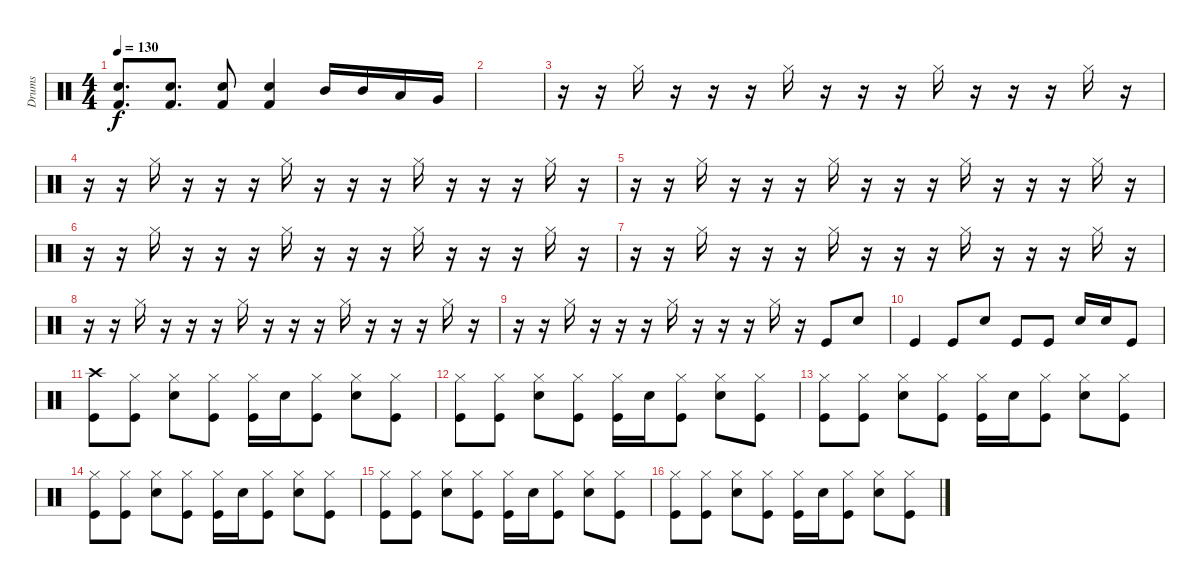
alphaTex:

\track ("Drums" "Drums") {instrument percussion}
\staff {score}
\articulation defaults
\ts (4 4)
\tempo 130
\clef neutral
\ks c
("Kick (hit) 2" "Snare (hit) 2").8{d dy f} ("Kick (hit) 2" "Snare (hit) 2").8{d} ("Kick (hit) 2" "Snare (hit) 2").8 ("Kick (hit) 2" "Snare (hit) 2").4 "Mid Tom (hit)".16 "Mid Tom (hit)".16 "Low Tom (hit)".16 "Very Low Tom (hit)".16 |
|
r.16 r.16 "Hi-Hat (closed)".16 r.16 r.16 r.16 "Hi-Hat (closed)".16 r.16 r.16 r.16 "Hi-Hat (closed)".16 r.16 r.16 r.16 "Hi-Hat (closed)".16 r.16 |
r.16 r.16 "Hi-Hat (closed)".16 r.16 r.16 r.16 "Hi-Hat (closed)".16 r.16 r.16 r.16 "Hi-Hat (closed)".16 r.16 r.16 r.16 "Hi-Hat (closed)".16 r.16 |
r.16 r.16 "Hi-Hat (closed)".16 r.16 r.16 r.16 "Hi-Hat (closed)".16 r.16 r.16 r.16 "Hi-Hat (closed)".16 r.16 r.16 r.16 "Hi-Hat (closed)".16 r.16 |
r.16 r.16 "Hi-Hat (closed)".16 r.16 r.16 r.16 "Hi-Hat (closed)".16 r.16 r.16 r.16 "Hi-Hat (closed)".16 r.16 r.16 r.16 "Hi-Hat (closed)".16 r.16 |
r.16 r.16 "Hi-Hat (closed)".16 r.16 r.16 r.16 "Hi-Hat (closed)".16 r.16 r.16 r.16 "Hi-Hat (closed)".16 r.16 r.16 r.16 "Hi-Hat (closed)".16 r.16 |
r.16 r.16 "Hi-Hat (closed)".16 r.16 r.16 r.16 "Hi-Hat (closed)".16 r.16 r.16 r.16 "Hi-Hat (closed)".16 r.16 r.16 r.16 "Hi-Hat (closed)".16 r.16 |
r.16 r.16 "Hi-Hat (closed)".16 r.16 r.16 r.16 "Hi-Hat (closed)".16 r.16 r.16 r.16 "Hi-Hat (closed)".16 r.16 "Kick (hit)".8 "Snare (hit) 2".8 |
"Kick (hit)".4 "Kick (hit)".8 "Snare (hit) 2".8 "Kick (hit)".8 "Kick (hit)".8 "Snare (hit) 2".16 "Snare (hit) 2".16 "Kick (hit)".8 |
("Crash high (hit)" "Kick (hit)").8 ("Hi-Hat (closed)" "Kick (hit)").8 ("Hi-Hat (closed)" "Snare (hit) 2").8 ("Hi-Hat (closed)" "Kick (hit)").8 ("Hi-Hat (closed)" "Kick (hit)").16 "Snare (hit) 2".16 ("Hi-Hat (closed)" "Kick (hit)").8 ("Hi-Hat (closed)" "Snare (hit) 2").8 ("Hi-Hat (closed)" "Kick (hit)").8 |
("Hi-Hat (closed)" "Kick (hit)").8 ("Hi-Hat (closed)" "Kick (hit)").8 ("Hi-Hat (closed)" "Snare (hit) 2").8 ("Hi-Hat (closed)" "Kick (hit)").8 ("Hi-Hat (closed)" "Kick (hit)").16 "Snare (hit) 2".16 ("Hi-Hat (closed)" "Kick (hit)").8 ("Hi-Hat (closed)" "Snare (hit) 2").8 ("Hi-Hat (closed)" "Kick (hit)").8 |
("Hi-Hat (closed)" "Kick (hit)").8 ("Hi-Hat (closed)" "Kick (hit)").8 ("Hi-Hat (closed)" "Snare (hit) 2").8 ("Hi-Hat (closed)" "Kick (hit)").8 ("Hi-Hat (closed)" "Kick (hit)").16 "Snare (hit) 2".16 ("Hi-Hat (closed)" "Kick (hit)").8 ("Hi-Hat (closed)" "Snare (hit) 2").8 ("Hi-Hat (closed)" "Kick (hit)").8 |
("Hi-Hat (closed)" "Kick (hit)").8 ("Hi-Hat (closed)" "Kick (hit)").8 ("Hi-Hat (closed)" "Snare (hit) 2").8 ("Hi-Hat (closed)" "Kick (hit)").8 ("Hi-Hat (closed)" "Kick (hit)").16 "Snare (hit) 2".16 ("Hi-Hat (closed)" "Kick (hit)").8 ("Hi-Hat (closed)" "Snare (hit) 2").8 ("Hi-Hat (closed)" "Kick (hit)").8 |
("Hi-Hat (closed)" "Kick (hit)").8 ("Hi-Hat (closed)" "Kick (hit)").8 ("Hi-Hat (closed)" "Snare (hit) 2").8 ("Hi-Hat (closed)" "Kick (hit)").8 ("Hi-Hat (closed)" "Kick (hit)").16 "Snare (hit) 2".16 ("Hi-Hat (closed)" "Kick (hit)").8 ("Hi-Hat (closed)" "Snare (hit) 2").8 ("Hi-Hat (closed)" "Kick (hit)").8 |
("Hi-Hat (closed)" "Kick (hit)").8 ("Hi-Hat (closed)" "Kick (hit)").8 ("Hi-Hat (closed)" "Snare (hit) 2").8 ("Hi-Hat (closed)" "Kick (hit)").8 ("Hi-Hat (closed)" "Kick (hit)").16 "Snare (hit) 2".16 ("Hi-Hat (closed)" "Kick (hit)").8 ("Hi-Hat (closed)" "Snare (hit) 2").8 ("Hi-Hat (closed)" "Kick (hit)").8
